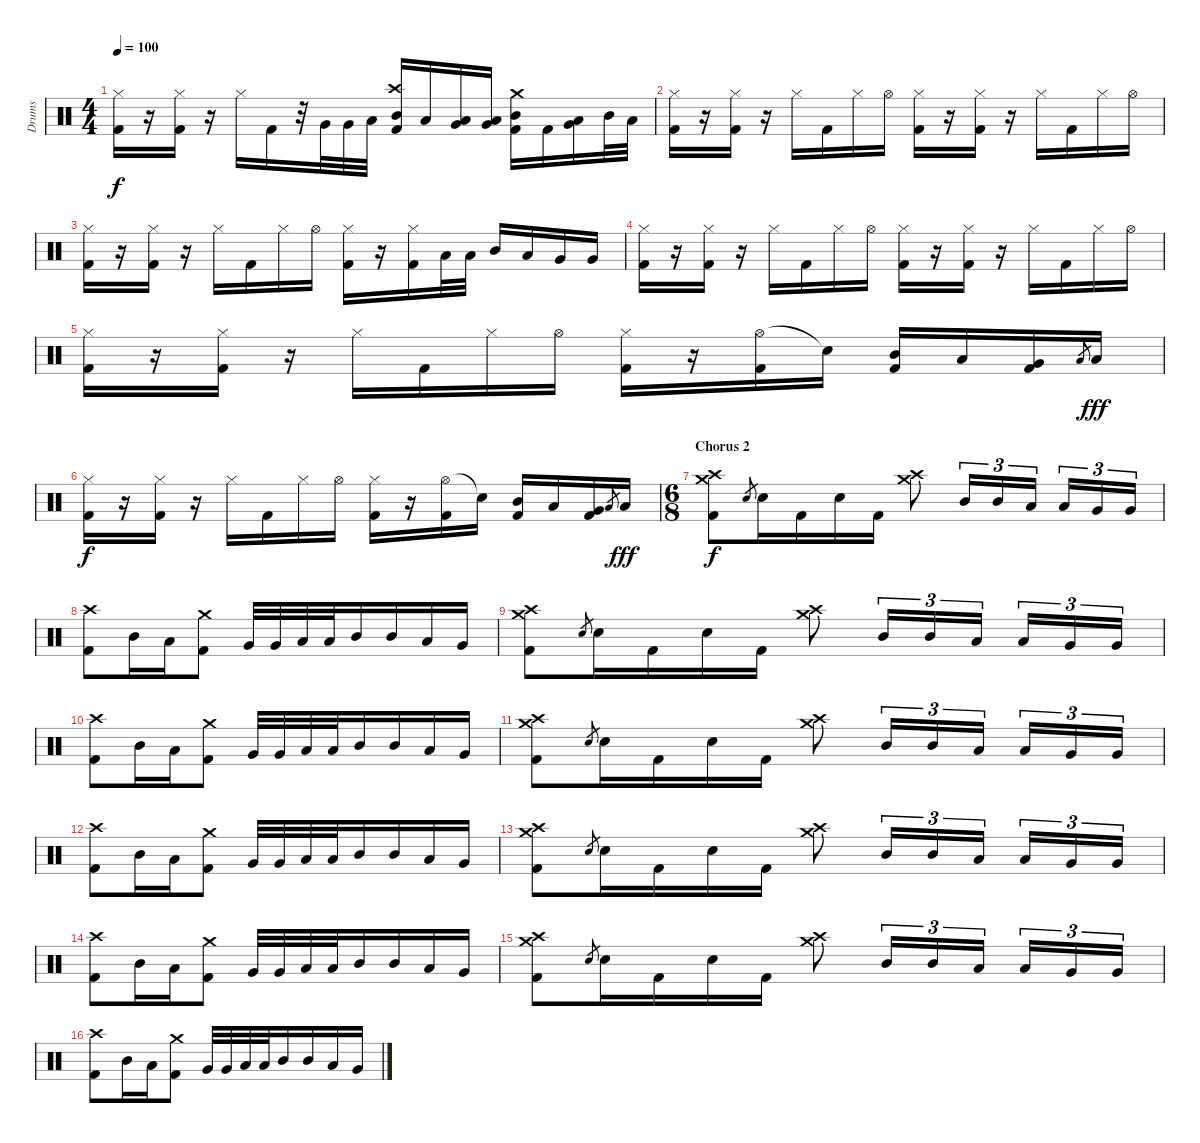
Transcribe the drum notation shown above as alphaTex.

\track ("Drums" "Drums") {instrument percussion}
\staff {score}
\articulation defaults
\ts (4 4)
\tempo 100
\clef neutral
\ks c
("Hi-Hat (closed)" "Kick (hit) 2").16{dy f} r.16 ("Hi-Hat (closed)" "Kick (hit) 2").16 r.16 "Hi-Hat (closed)".16 "Kick (hit) 2".16 r.32 "Very Low Tom (hit)".32 "Very Low Tom (hit)".32 "Low Tom (hit)".32 ("Crash high (hit)" "Mid Tom (hit)" "Kick (hit) 2").16 "Low Tom (hit)".16 ("Low Tom (hit)" "Very Low Tom (hit)").16 ("Very Low Tom (hit)" "Low Floor Tom (hit)").16 ("Crash medium (hit)" "Mid Tom (hit)" "Kick (hit) 2").16 "Kick (hit) 2".16 ("Low Tom (hit)" "Very Low Tom (hit)").16 "Mid Tom (hit)".32 "Low Tom (hit)".32 |
("Hi-Hat (closed)" "Kick (hit) 2").16 r.16 ("Hi-Hat (closed)" "Kick (hit) 2").16 r.16 "Hi-Hat (closed)".16 "Kick (hit) 2".16 "Hi-Hat (closed)".16 "Hi-Hat (open)".16 ("Hi-Hat (closed)" "Kick (hit) 2").16 r.16 ("Hi-Hat (closed)" "Kick (hit) 2").16 r.16 "Hi-Hat (closed)".16 "Kick (hit) 2".16 "Hi-Hat (closed)".16 "Hi-Hat (open)".16 |
("Hi-Hat (closed)" "Kick (hit) 2").16 r.16 ("Hi-Hat (closed)" "Kick (hit) 2").16 r.16 "Hi-Hat (closed)".16 "Kick (hit) 2".16 "Hi-Hat (closed)".16 "Hi-Hat (open)".16 ("Hi-Hat (closed)" "Kick (hit) 2").16 r.16 ("Hi-Hat (closed)" "Kick (hit) 2").16 "Low Tom (hit)".32 "Low Tom (hit)".32 "Mid Tom (hit)".16 "Low Tom (hit)".16 "Very Low Tom (hit)".16 "Very Low Tom (hit)".16 |
("Hi-Hat (closed)" "Kick (hit) 2").16 r.16 ("Hi-Hat (closed)" "Kick (hit) 2").16 r.16 "Hi-Hat (closed)".16 "Kick (hit) 2".16 "Hi-Hat (closed)".16 "Hi-Hat (open)".16 ("Hi-Hat (closed)" "Kick (hit) 2").16 r.16 ("Hi-Hat (closed)" "Kick (hit) 2").16 r.16 "Hi-Hat (closed)".16 "Kick (hit) 2".16 "Hi-Hat (closed)".16 "Hi-Hat (open)".16 |
("Hi-Hat (closed)" "Kick (hit) 2").16 r.16 ("Hi-Hat (closed)" "Kick (hit) 2").16 r.16 "Hi-Hat (closed)".16 "Kick (hit) 2".16 "Hi-Hat (closed)".16 "Hi-Hat (open)".16 ("Hi-Hat (closed)" "Kick (hit) 2").16 r.16 ("Hi-Hat (open)" "Kick (hit) 2").16 "Snare (hit)"{t}.16 ("Mid Tom (hit)" "Kick (hit) 2").16 "Low Tom (hit)".16 ("Very Low Tom (hit)" "Kick (hit) 2").16 "Low Floor Tom (hit)".8{gr} "Low Floor Tom (hit)".16{dy fff} |
("Hi-Hat (closed)" "Kick (hit) 2").16{dy f} r.16 ("Hi-Hat (closed)" "Kick (hit) 2").16 r.16 "Hi-Hat (closed)".16 "Kick (hit) 2".16 "Hi-Hat (closed)".16 "Hi-Hat (open)".16 ("Hi-Hat (closed)" "Kick (hit) 2").16 r.16 ("Hi-Hat (open)" "Kick (hit) 2").16 "Snare (hit)"{t}.16 ("Mid Tom (hit)" "Kick (hit) 2").16 "Low Tom (hit)".16 ("Very Low Tom (hit)" "Kick (hit) 2").16 "Low Floor Tom (hit)".8{gr} "Low Floor Tom (hit)".16{dy fff} |
\ts (6 8)
\section ("" "Chorus 2")
("Crash high (hit)" "Crash medium (hit)" "Kick (hit) 2").8{dy f} "Electric Snare (hit)".8{gr} "Electric Snare (hit)".16 "Kick (hit) 2".16 "Electric Snare (hit)".16 "Kick (hit) 2".16 ("Crash high (hit)" "Crash medium (hit)").8 "Mid Tom (hit)".16{tu (3 2)} "Mid Tom (hit)".16{tu (3 2)} "Low Tom (hit)".16{tu (3 2)} "Low Tom (hit)".16{tu (3 2)} "Very Low Tom (hit)".16{tu (3 2)} "Very Low Tom (hit)".16{tu (3 2)} |
("Crash high (hit)" "Kick (hit) 2").8 "Mid Tom (hit)".16 "Low Tom (hit)".16 ("Crash medium (hit)" "Kick (hit) 2").8 "Very Low Tom (hit)".32 "Very Low Tom (hit)".32 "Low Tom (hit)".32 "Low Tom (hit)".32 "Mid Tom (hit)".16 "Mid Tom (hit)".16 "Low Tom (hit)".16 "Very Low Tom (hit)".16 |
("Crash high (hit)" "Crash medium (hit)" "Kick (hit) 2").8 "Electric Snare (hit)".8{gr} "Electric Snare (hit)".16 "Kick (hit) 2".16 "Electric Snare (hit)".16 "Kick (hit) 2".16 ("Crash high (hit)" "Crash medium (hit)").8 "Mid Tom (hit)".16{tu (3 2)} "Mid Tom (hit)".16{tu (3 2)} "Low Tom (hit)".16{tu (3 2)} "Low Tom (hit)".16{tu (3 2)} "Very Low Tom (hit)".16{tu (3 2)} "Very Low Tom (hit)".16{tu (3 2)} |
("Crash high (hit)" "Kick (hit) 2").8 "Mid Tom (hit)".16 "Low Tom (hit)".16 ("Crash medium (hit)" "Kick (hit) 2").8 "Very Low Tom (hit)".32 "Very Low Tom (hit)".32 "Low Tom (hit)".32 "Low Tom (hit)".32 "Mid Tom (hit)".16 "Mid Tom (hit)".16 "Low Tom (hit)".16 "Very Low Tom (hit)".16 |
("Crash high (hit)" "Crash medium (hit)" "Kick (hit) 2").8 "Electric Snare (hit)".8{gr} "Electric Snare (hit)".16 "Kick (hit) 2".16 "Electric Snare (hit)".16 "Kick (hit) 2".16 ("Crash high (hit)" "Crash medium (hit)").8 "Mid Tom (hit)".16{tu (3 2)} "Mid Tom (hit)".16{tu (3 2)} "Low Tom (hit)".16{tu (3 2)} "Low Tom (hit)".16{tu (3 2)} "Very Low Tom (hit)".16{tu (3 2)} "Very Low Tom (hit)".16{tu (3 2)} |
("Crash high (hit)" "Kick (hit) 2").8 "Mid Tom (hit)".16 "Low Tom (hit)".16 ("Crash medium (hit)" "Kick (hit) 2").8 "Very Low Tom (hit)".32 "Very Low Tom (hit)".32 "Low Tom (hit)".32 "Low Tom (hit)".32 "Mid Tom (hit)".16 "Mid Tom (hit)".16 "Low Tom (hit)".16 "Very Low Tom (hit)".16 |
("Crash high (hit)" "Crash medium (hit)" "Kick (hit) 2").8 "Electric Snare (hit)".8{gr} "Electric Snare (hit)".16 "Kick (hit) 2".16 "Electric Snare (hit)".16 "Kick (hit) 2".16 ("Crash high (hit)" "Crash medium (hit)").8 "Mid Tom (hit)".16{tu (3 2)} "Mid Tom (hit)".16{tu (3 2)} "Low Tom (hit)".16{tu (3 2)} "Low Tom (hit)".16{tu (3 2)} "Very Low Tom (hit)".16{tu (3 2)} "Very Low Tom (hit)".16{tu (3 2)} |
("Crash high (hit)" "Kick (hit) 2").8 "Mid Tom (hit)".16 "Low Tom (hit)".16 ("Crash medium (hit)" "Kick (hit) 2").8 "Very Low Tom (hit)".32 "Very Low Tom (hit)".32 "Low Tom (hit)".32 "Low Tom (hit)".32 "Mid Tom (hit)".16 "Mid Tom (hit)".16 "Low Tom (hit)".16 "Very Low Tom (hit)".16 |
("Crash high (hit)" "Crash medium (hit)" "Kick (hit) 2").8 "Electric Snare (hit)".8{gr} "Electric Snare (hit)".16 "Kick (hit) 2".16 "Electric Snare (hit)".16 "Kick (hit) 2".16 ("Crash high (hit)" "Crash medium (hit)").8 "Mid Tom (hit)".16{tu (3 2)} "Mid Tom (hit)".16{tu (3 2)} "Low Tom (hit)".16{tu (3 2)} "Low Tom (hit)".16{tu (3 2)} "Very Low Tom (hit)".16{tu (3 2)} "Very Low Tom (hit)".16{tu (3 2)} |
("Crash high (hit)" "Kick (hit) 2").8 "Mid Tom (hit)".16 "Low Tom (hit)".16 ("Crash medium (hit)" "Kick (hit) 2").8 "Very Low Tom (hit)".32 "Very Low Tom (hit)".32 "Low Tom (hit)".32 "Low Tom (hit)".32 "Mid Tom (hit)".16 "Mid Tom (hit)".16 "Low Tom (hit)".16 "Very Low Tom (hit)".16
